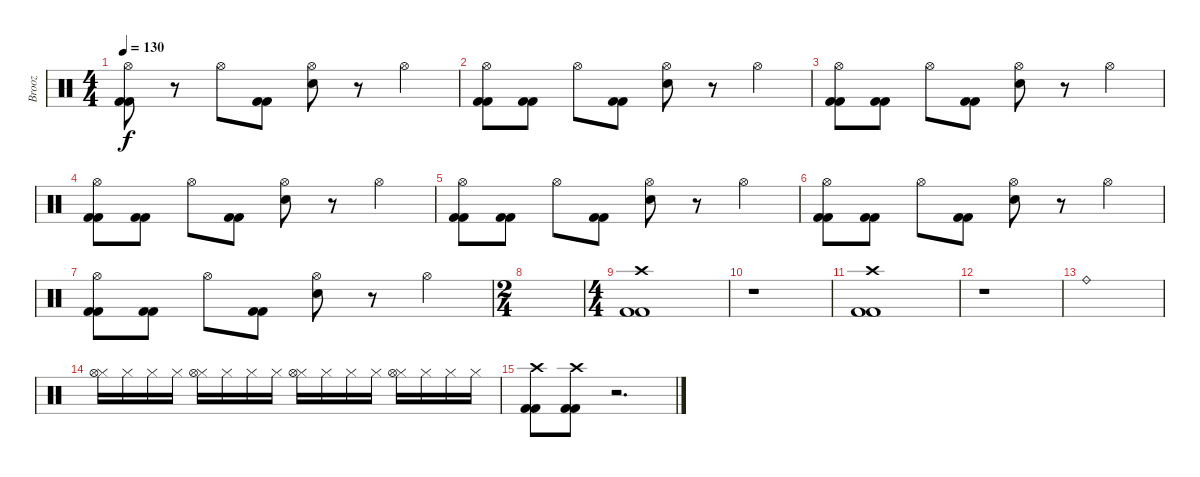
\track ("Brooz" "Brooz") {instrument percussion}
\staff {score}
\articulation defaults
\ts (4 4)
\tempo 130
\clef neutral
\ks c
("Hi-Hat (open)" "Kick (hit) 2" "Kick (hit) 2").8{dy f} r.8 "Hi-Hat (open)".8 ("Kick (hit) 2" "Kick (hit) 2").8 ("Hi-Hat (open)" "Snare (hit) 2").8 r.8 "Hi-Hat (open)".4 |
("Hi-Hat (open)" "Kick (hit) 2" "Kick (hit) 2").8 ("Kick (hit) 2" "Kick (hit) 2").8 "Hi-Hat (open)".8 ("Kick (hit) 2" "Kick (hit) 2").8 ("Hi-Hat (open)" "Snare (hit) 2").8 r.8 "Hi-Hat (open)".4 |
("Hi-Hat (open)" "Kick (hit) 2" "Kick (hit) 2").8 ("Kick (hit) 2" "Kick (hit) 2").8 "Hi-Hat (open)".8 ("Kick (hit) 2" "Kick (hit) 2").8 ("Hi-Hat (open)" "Snare (hit) 2").8 r.8 "Hi-Hat (open)".4 |
("Hi-Hat (open)" "Kick (hit) 2" "Kick (hit) 2").8 ("Kick (hit) 2" "Kick (hit) 2").8 "Hi-Hat (open)".8 ("Kick (hit) 2" "Kick (hit) 2").8 ("Hi-Hat (open)" "Snare (hit) 2").8 r.8 "Hi-Hat (open)".4 |
("Hi-Hat (open)" "Kick (hit) 2" "Kick (hit) 2").8 ("Kick (hit) 2" "Kick (hit) 2").8 "Hi-Hat (open)".8 ("Kick (hit) 2" "Kick (hit) 2").8 ("Hi-Hat (open)" "Snare (hit) 2").8 r.8 "Hi-Hat (open)".4 |
("Hi-Hat (open)" "Kick (hit) 2" "Kick (hit) 2").8 ("Kick (hit) 2" "Kick (hit) 2").8 "Hi-Hat (open)".8 ("Kick (hit) 2" "Kick (hit) 2").8 ("Hi-Hat (open)" "Snare (hit) 2").8 r.8 "Hi-Hat (open)".4 |
("Hi-Hat (open)" "Kick (hit) 2" "Kick (hit) 2").8 ("Kick (hit) 2" "Kick (hit) 2").8 "Hi-Hat (open)".8 ("Kick (hit) 2" "Kick (hit) 2").8 ("Hi-Hat (open)" "Snare (hit) 2").8 r.8 "Hi-Hat (open)".4 |
\ts (2 4)
|
\ts (4 4)
("Crash high (hit)" "Kick (hit) 2" "Kick (hit) 2").1 |
r.1 |
("Crash high (hit)" "Kick (hit) 2" "Kick (hit) 2").1 |
r.1 |
"Ride (bell)".1 |
("Hi-Hat (closed)" "Hi-Hat (open)").16 "Hi-Hat (closed)".16 "Hi-Hat (closed)".16 "Hi-Hat (closed)".16 ("Hi-Hat (closed)" "Hi-Hat (open)").16 "Hi-Hat (closed)".16 "Hi-Hat (closed)".16 "Hi-Hat (closed)".16 ("Hi-Hat (closed)" "Hi-Hat (open)").16 "Hi-Hat (closed)".16 "Hi-Hat (closed)".16 "Hi-Hat (closed)".16 ("Hi-Hat (closed)" "Hi-Hat (open)").16 "Hi-Hat (closed)".16 "Hi-Hat (closed)".16 "Hi-Hat (closed)".16 |
("Crash high (hit)" "Kick (hit) 2" "Kick (hit) 2").8 ("Crash high (hit)" "Kick (hit) 2" "Kick (hit) 2").8 r.2{d}
